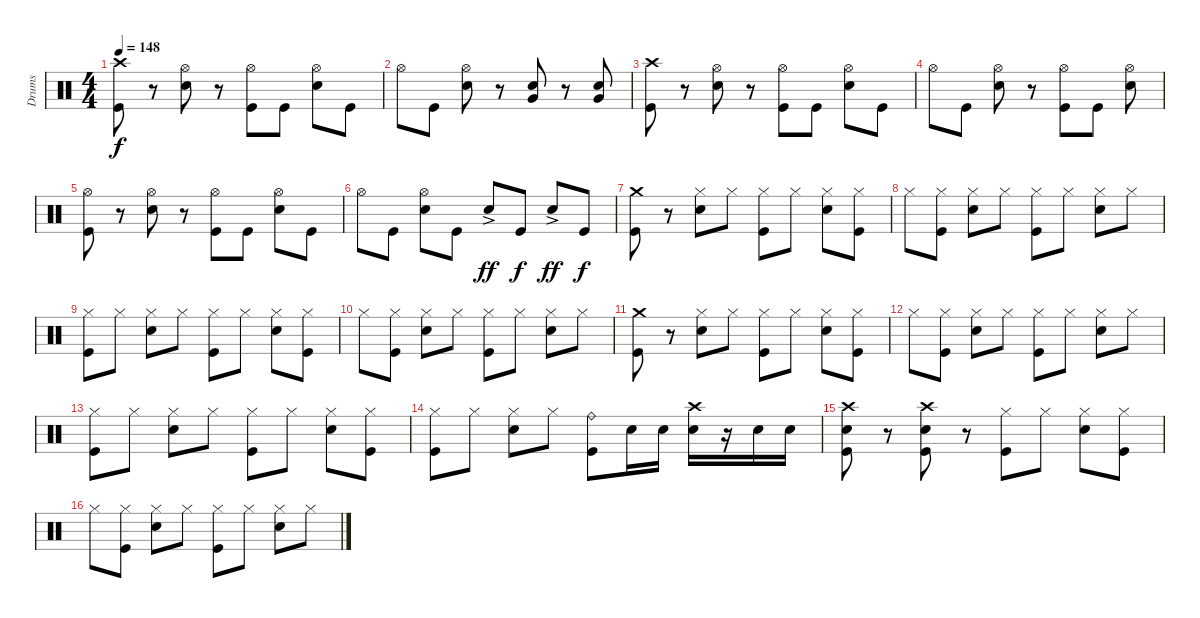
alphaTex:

\track ("Drums" "Drums") {instrument percussion}
\staff {score}
\articulation defaults
\ts (4 4)
\tempo 148
\clef neutral
\ks c
("Crash high (hit)" "Kick (hit)").8{dy f} r.8 ("Hi-Hat (open)" "Electric Snare (hit)").8 r.8 ("Hi-Hat (open)" "Kick (hit)").8 "Kick (hit)".8 ("Hi-Hat (open)" "Electric Snare (hit)").8 "Kick (hit)".8 |
"Hi-Hat (open)".8 "Kick (hit)".8 ("Hi-Hat (open)" "Electric Snare (hit)").8 r.8 ("Very Low Tom (hit)" "Electric Snare (hit)").8 r.8 ("Very Low Tom (hit)" "Electric Snare (hit)").8 |
("Crash high (hit)" "Kick (hit)").8 r.8 ("Hi-Hat (open)" "Electric Snare (hit)").8 r.8 ("Hi-Hat (open)" "Kick (hit)").8 "Kick (hit)".8 ("Hi-Hat (open)" "Electric Snare (hit)").8 "Kick (hit)".8 |
"Hi-Hat (open)".8 "Kick (hit)".8 ("Hi-Hat (open)" "Electric Snare (hit)").8 r.8 ("Hi-Hat (open)" "Kick (hit)").8 "Kick (hit)".8 ("Hi-Hat (open)" "Electric Snare (hit)").8 |
("Hi-Hat (open)" "Kick (hit)").8 r.8 ("Hi-Hat (open)" "Electric Snare (hit)").8 r.8 ("Hi-Hat (open)" "Kick (hit)").8 "Kick (hit)".8 ("Hi-Hat (open)" "Electric Snare (hit)").8 "Kick (hit)".8 |
"Hi-Hat (open)".8 "Kick (hit)".8 ("Hi-Hat (open)" "Electric Snare (hit)").8 "Kick (hit)".8 "Electric Snare (hit)"{ac}.8{dy ff} "Kick (hit)".8{dy f} "Electric Snare (hit)"{ac}.8{dy ff} "Kick (hit)".8{dy f} |
("Crash medium (hit)" "Kick (hit)").8 r.8 ("Hi-Hat (closed)" "Electric Snare (hit)").8 "Hi-Hat (closed)".8 ("Hi-Hat (closed)" "Kick (hit)").8 "Hi-Hat (closed)".8 ("Hi-Hat (closed)" "Electric Snare (hit)").8 ("Hi-Hat (closed)" "Kick (hit)").8 |
"Hi-Hat (closed)".8 ("Hi-Hat (closed)" "Kick (hit)").8 ("Hi-Hat (closed)" "Electric Snare (hit)").8 "Hi-Hat (closed)".8 ("Hi-Hat (closed)" "Kick (hit)").8 "Hi-Hat (closed)".8 ("Hi-Hat (closed)" "Electric Snare (hit)").8 "Hi-Hat (closed)".8 |
("Hi-Hat (closed)" "Kick (hit)").8 "Hi-Hat (closed)".8 ("Hi-Hat (closed)" "Electric Snare (hit)").8 "Hi-Hat (closed)".8 ("Hi-Hat (closed)" "Kick (hit)").8 "Hi-Hat (closed)".8 ("Hi-Hat (closed)" "Electric Snare (hit)").8 ("Hi-Hat (closed)" "Kick (hit)").8 |
"Hi-Hat (closed)".8 ("Hi-Hat (closed)" "Kick (hit)").8 ("Hi-Hat (closed)" "Electric Snare (hit)").8 "Hi-Hat (closed)".8 ("Hi-Hat (closed)" "Kick (hit)").8 "Hi-Hat (closed)".8 ("Hi-Hat (closed)" "Electric Snare (hit)").8 "Hi-Hat (closed)".8 |
("Crash medium (hit)" "Kick (hit)").8 r.8 ("Hi-Hat (closed)" "Electric Snare (hit)").8 "Hi-Hat (closed)".8 ("Hi-Hat (closed)" "Kick (hit)").8 "Hi-Hat (closed)".8 ("Hi-Hat (closed)" "Electric Snare (hit)").8 ("Hi-Hat (closed)" "Kick (hit)").8 |
"Hi-Hat (closed)".8 ("Hi-Hat (closed)" "Kick (hit)").8 ("Hi-Hat (closed)" "Electric Snare (hit)").8 "Hi-Hat (closed)".8 ("Hi-Hat (closed)" "Kick (hit)").8 "Hi-Hat (closed)".8 ("Hi-Hat (closed)" "Electric Snare (hit)").8 "Hi-Hat (closed)".8 |
("Hi-Hat (closed)" "Kick (hit)").8 "Hi-Hat (closed)".8 ("Hi-Hat (closed)" "Electric Snare (hit)").8 "Hi-Hat (closed)".8 ("Hi-Hat (closed)" "Kick (hit)").8 "Hi-Hat (closed)".8 ("Hi-Hat (closed)" "Electric Snare (hit)").8 ("Hi-Hat (closed)" "Kick (hit)").8 |
("Hi-Hat (closed)" "Kick (hit)").8 "Hi-Hat (closed)".8 ("Hi-Hat (closed)" "Electric Snare (hit)").8 "Hi-Hat (closed)".8 ("Ride (bell)" "Kick (hit)").8 "Electric Snare (hit)".16 "Electric Snare (hit)".16 ("Crash high (hit)" "Electric Snare (hit)").16 r.16 "Electric Snare (hit)".16 "Electric Snare (hit)".16 |
("Crash high (hit)" "Electric Snare (hit)" "Kick (hit)").8 r.8 ("Crash high (hit)" "Electric Snare (hit)" "Kick (hit)").8 r.8 ("Hi-Hat (closed)" "Kick (hit)").8 "Hi-Hat (closed)".8 ("Hi-Hat (closed)" "Electric Snare (hit)").8 ("Hi-Hat (closed)" "Kick (hit)").8 |
"Hi-Hat (closed)".8 ("Hi-Hat (closed)" "Kick (hit)").8 ("Hi-Hat (closed)" "Electric Snare (hit)").8 "Hi-Hat (closed)".8 ("Hi-Hat (closed)" "Kick (hit)").8 "Hi-Hat (closed)".8 ("Hi-Hat (closed)" "Electric Snare (hit)").8 "Hi-Hat (closed)".8
